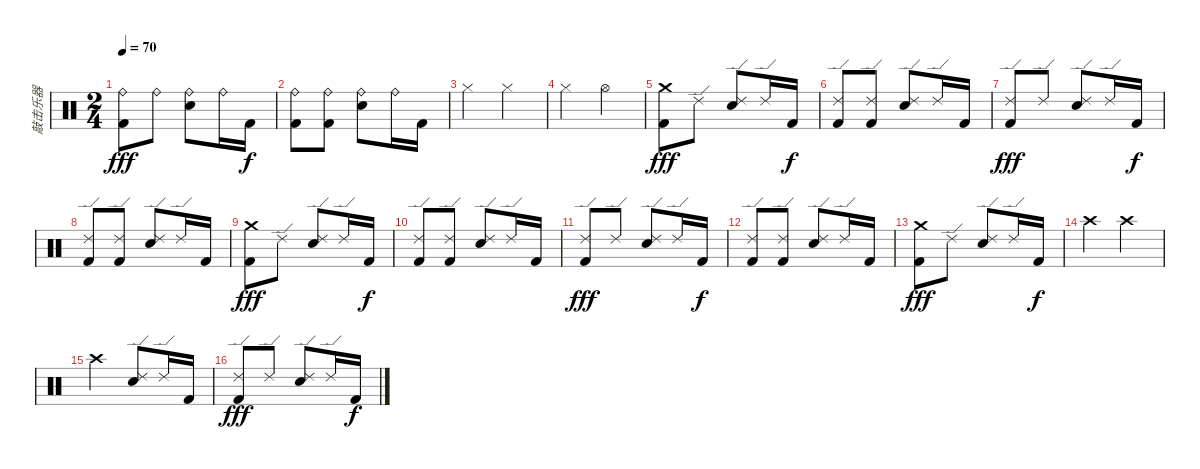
\track ("敲击乐器" "敲击乐器") {instrument percussion}
\staff {score}
\articulation defaults
\ts (2 4)
\tempo 70
\clef neutral
\ks c
("Ride (bell)" "Kick (hit) 2").8{dy fff} "Ride (bell)".8 ("Ride (bell)" "Snare (hit) 2").8 "Ride (bell)".16 "Kick (hit) 2".16{dy f} |
("Ride (bell)" "Kick (hit) 2").8 ("Ride (bell)" "Kick (hit) 2").8 ("Ride (bell)" "Snare (hit) 2").8 "Ride (bell)".16 "Kick (hit) 2".16 |
"Hi-Hat (closed)".4 "Hi-Hat (closed)".4 |
"Hi-Hat (closed)".4 "Hi-Hat (open)".4 |
("Crash medium (hit)" "Kick (hit) 2").8{dy fff} "Ride (edge) 2".8 ("Ride (edge) 2" "Snare (hit) 2").8 "Ride (edge) 2".16 "Kick (hit) 2".16{dy f} |
("Ride (edge) 2" "Kick (hit) 2").8 ("Ride (edge) 2" "Kick (hit) 2").8 ("Ride (edge) 2" "Snare (hit) 2").8 "Ride (edge) 2".16 "Kick (hit) 2".16 |
("Ride (edge) 2" "Kick (hit) 2").8{dy fff} "Ride (edge) 2".8 ("Ride (edge) 2" "Snare (hit) 2").8 "Ride (edge) 2".16 "Kick (hit) 2".16{dy f} |
("Ride (edge) 2" "Kick (hit) 2").8 ("Ride (edge) 2" "Kick (hit) 2").8 ("Ride (edge) 2" "Snare (hit) 2").8 "Ride (edge) 2".16 "Kick (hit) 2".16 |
("Crash medium (hit)" "Kick (hit) 2").8{dy fff} "Ride (edge) 2".8 ("Ride (edge) 2" "Snare (hit) 2").8 "Ride (edge) 2".16 "Kick (hit) 2".16{dy f} |
("Ride (edge) 2" "Kick (hit) 2").8 ("Ride (edge) 2" "Kick (hit) 2").8 ("Ride (edge) 2" "Snare (hit) 2").8 "Ride (edge) 2".16 "Kick (hit) 2".16 |
("Ride (edge) 2" "Kick (hit) 2").8{dy fff} "Ride (edge) 2".8 ("Ride (edge) 2" "Snare (hit) 2").8 "Ride (edge) 2".16 "Kick (hit) 2".16{dy f} |
("Ride (edge) 2" "Kick (hit) 2").8 ("Ride (edge) 2" "Kick (hit) 2").8 ("Ride (edge) 2" "Snare (hit) 2").8 "Ride (edge) 2".16 "Kick (hit) 2".16 |
("Crash medium (hit)" "Kick (hit) 2").8{dy fff} "Ride (edge) 2".8 ("Ride (edge) 2" "Snare (hit) 2").8 "Ride (edge) 2".16 "Kick (hit) 2".16{dy f} |
"Crash high (hit)".4 "Crash high (hit)".4 |
"Crash high (hit)".4 ("Ride (edge) 2" "Snare (hit) 2").8 "Ride (edge) 2".16 "Kick (hit) 2".16 |
("Ride (edge) 2" "Kick (hit) 2").8{dy fff} "Ride (edge) 2".8 ("Ride (edge) 2" "Snare (hit) 2").8 "Ride (edge) 2".16 "Kick (hit) 2".16{dy f}
